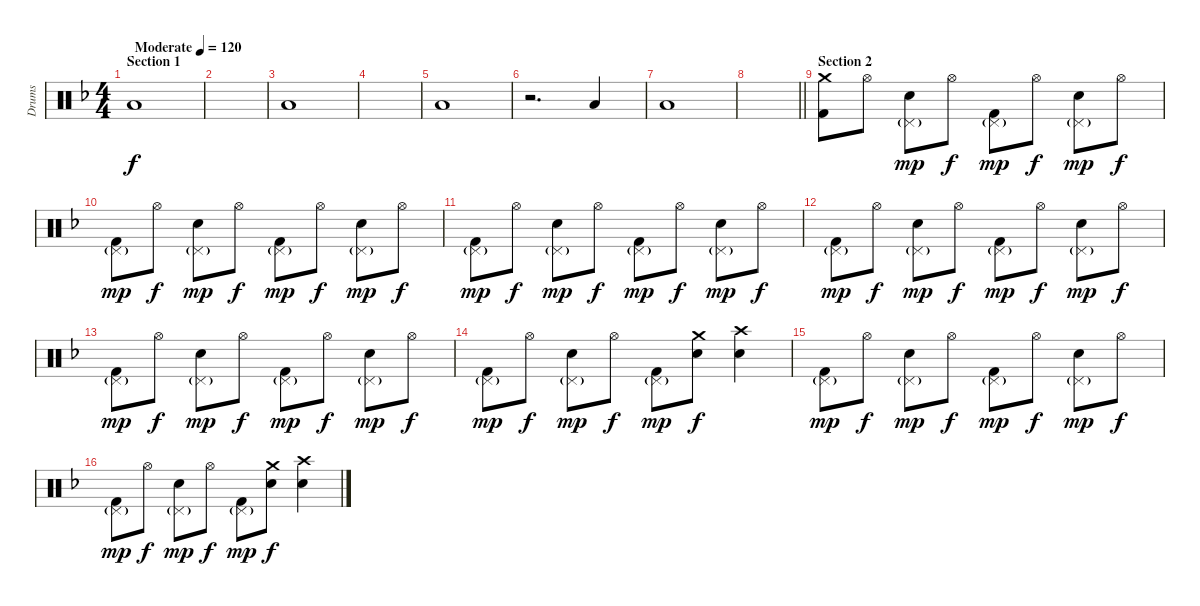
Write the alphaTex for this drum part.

\track ("Drums" "Drums") {instrument percussion}
\staff {score}
\articulation defaults
\ts (4 4)
\section ("" "Section 1")
\tempo (120 "Moderate")
\clef neutral
\ks dminor "Low Floor Tom (hit)".1{dy f}
|
|
"Low Floor Tom (hit)".1 |
|
"Low Floor Tom (hit)".1 |
r.2{d} "Low Floor Tom (hit)".4 |
"Low Floor Tom (hit)".1 |
\barLineRight lightlight
|
\section ("" "Section 2")
("Crash medium (hit)" "Kick (hit) 2").8 "Hi-Hat (open)".8 ("Pedal Hi-Hat (hit)"{g} "Electric Snare (hit)").8{dy mp} "Hi-Hat (open)".8{dy f} ("Pedal Hi-Hat (hit)"{g} "Kick (hit) 2").8{dy mp} "Hi-Hat (open)".8{dy f} ("Pedal Hi-Hat (hit)"{g} "Electric Snare (hit)").8{dy mp} "Hi-Hat (open)".8{dy f} |
("Pedal Hi-Hat (hit)"{g} "Kick (hit) 2").8{dy mp} "Hi-Hat (open)".8{dy f} ("Pedal Hi-Hat (hit)"{g} "Electric Snare (hit)").8{dy mp} "Hi-Hat (open)".8{dy f} ("Pedal Hi-Hat (hit)"{g} "Kick (hit) 2").8{dy mp} "Hi-Hat (open)".8{dy f} ("Pedal Hi-Hat (hit)"{g} "Electric Snare (hit)").8{dy mp} "Hi-Hat (open)".8{dy f} |
("Pedal Hi-Hat (hit)"{g} "Kick (hit) 2").8{dy mp} "Hi-Hat (open)".8{dy f} ("Pedal Hi-Hat (hit)"{g} "Electric Snare (hit)").8{dy mp} "Hi-Hat (open)".8{dy f} ("Pedal Hi-Hat (hit)"{g} "Kick (hit) 2").8{dy mp} "Hi-Hat (open)".8{dy f} ("Pedal Hi-Hat (hit)"{g} "Electric Snare (hit)").8{dy mp} "Hi-Hat (open)".8{dy f} |
("Pedal Hi-Hat (hit)"{g} "Kick (hit) 2").8{dy mp} "Hi-Hat (open)".8{dy f} ("Pedal Hi-Hat (hit)"{g} "Electric Snare (hit)").8{dy mp} "Hi-Hat (open)".8{dy f} ("Pedal Hi-Hat (hit)"{g} "Kick (hit) 2").8{dy mp} "Hi-Hat (open)".8{dy f} ("Pedal Hi-Hat (hit)"{g} "Electric Snare (hit)").8{dy mp} "Hi-Hat (open)".8{dy f} |
("Pedal Hi-Hat (hit)"{g} "Kick (hit) 2").8{dy mp} "Hi-Hat (open)".8{dy f} ("Pedal Hi-Hat (hit)"{g} "Electric Snare (hit)").8{dy mp} "Hi-Hat (open)".8{dy f} ("Pedal Hi-Hat (hit)"{g} "Kick (hit) 2").8{dy mp} "Hi-Hat (open)".8{dy f} ("Pedal Hi-Hat (hit)"{g} "Electric Snare (hit)").8{dy mp} "Hi-Hat (open)".8{dy f} |
("Pedal Hi-Hat (hit)"{g} "Kick (hit) 2").8{dy mp} "Hi-Hat (open)".8{dy f} ("Pedal Hi-Hat (hit)"{g} "Electric Snare (hit)").8{dy mp} "Hi-Hat (open)".8{dy f} ("Pedal Hi-Hat (hit)"{g} "Kick (hit) 2").8{dy mp} ("Crash medium (hit)" "Electric Snare (hit)").8{dy f} ("Crash high (hit)" "Electric Snare (hit)").4 |
("Pedal Hi-Hat (hit)"{g} "Kick (hit) 2").8{dy mp} "Hi-Hat (open)".8{dy f} ("Pedal Hi-Hat (hit)"{g} "Electric Snare (hit)").8{dy mp} "Hi-Hat (open)".8{dy f} ("Pedal Hi-Hat (hit)"{g} "Kick (hit) 2").8{dy mp} "Hi-Hat (open)".8{dy f} ("Pedal Hi-Hat (hit)"{g} "Electric Snare (hit)").8{dy mp} "Hi-Hat (open)".8{dy f} |
("Pedal Hi-Hat (hit)"{g} "Kick (hit) 2").8{dy mp} "Hi-Hat (open)".8{dy f} ("Pedal Hi-Hat (hit)"{g} "Electric Snare (hit)").8{dy mp} "Hi-Hat (open)".8{dy f} ("Pedal Hi-Hat (hit)"{g} "Kick (hit) 2").8{dy mp} ("Crash medium (hit)" "Electric Snare (hit)").8{dy f} ("Crash high (hit)" "Electric Snare (hit)").4
